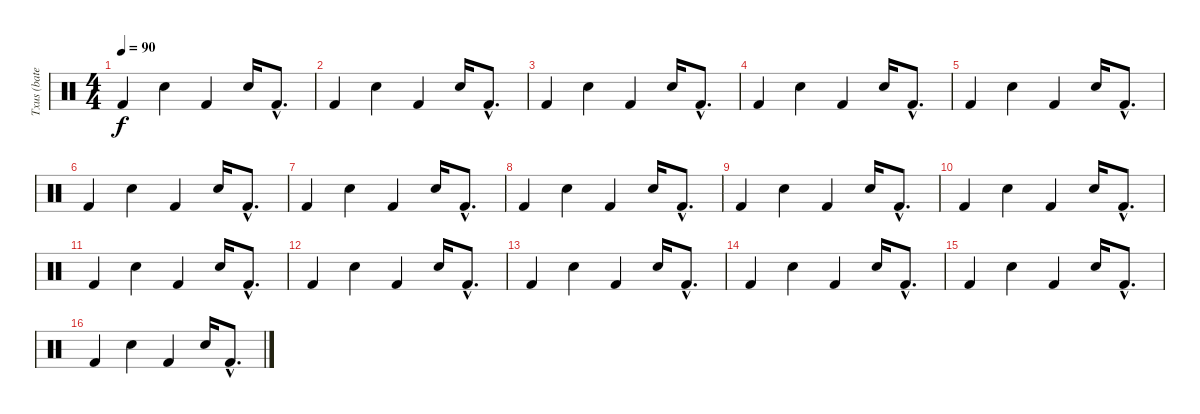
\track ("Txus (bateria)" "Txus (bate") {instrument percussion}
\staff {score}
\articulation defaults
\ts (4 4)
\tempo 90
\clef neutral
\ks c "Kick (hit) 2".4{dy f} "Snare (hit) 2".4 "Kick (hit) 2".4 "Snare (hit) 2".16 "Kick (hit) 2"{hac}.8{d}
|
"Kick (hit) 2".4 "Snare (hit) 2".4 "Kick (hit) 2".4 "Snare (hit) 2".16 "Kick (hit) 2"{hac}.8{d} |
"Kick (hit) 2".4 "Snare (hit) 2".4 "Kick (hit) 2".4 "Snare (hit) 2".16 "Kick (hit) 2"{hac}.8{d} |
"Kick (hit) 2".4 "Snare (hit) 2".4 "Kick (hit) 2".4 "Snare (hit) 2".16 "Kick (hit) 2"{hac}.8{d} |
"Kick (hit) 2".4 "Snare (hit) 2".4 "Kick (hit) 2".4 "Snare (hit) 2".16 "Kick (hit) 2"{hac}.8{d} |
"Kick (hit) 2".4 "Snare (hit) 2".4 "Kick (hit) 2".4 "Snare (hit) 2".16 "Kick (hit) 2"{hac}.8{d} |
"Kick (hit) 2".4 "Snare (hit) 2".4 "Kick (hit) 2".4 "Snare (hit) 2".16 "Kick (hit) 2"{hac}.8{d} |
"Kick (hit) 2".4 "Snare (hit) 2".4 "Kick (hit) 2".4 "Snare (hit) 2".16 "Kick (hit) 2"{hac}.8{d} |
"Kick (hit) 2".4 "Snare (hit) 2".4 "Kick (hit) 2".4 "Snare (hit) 2".16 "Kick (hit) 2"{hac}.8{d} |
"Kick (hit) 2".4 "Snare (hit) 2".4 "Kick (hit) 2".4 "Snare (hit) 2".16 "Kick (hit) 2"{hac}.8{d} |
"Kick (hit) 2".4 "Snare (hit) 2".4 "Kick (hit) 2".4 "Snare (hit) 2".16 "Kick (hit) 2"{hac}.8{d} |
"Kick (hit) 2".4 "Snare (hit) 2".4 "Kick (hit) 2".4 "Snare (hit) 2".16 "Kick (hit) 2"{hac}.8{d} |
"Kick (hit) 2".4 "Snare (hit) 2".4 "Kick (hit) 2".4 "Snare (hit) 2".16 "Kick (hit) 2"{hac}.8{d} |
"Kick (hit) 2".4 "Snare (hit) 2".4 "Kick (hit) 2".4 "Snare (hit) 2".16 "Kick (hit) 2"{hac}.8{d} |
"Kick (hit) 2".4 "Snare (hit) 2".4 "Kick (hit) 2".4 "Snare (hit) 2".16 "Kick (hit) 2"{hac}.8{d} |
"Kick (hit) 2".4 "Snare (hit) 2".4 "Kick (hit) 2".4 "Snare (hit) 2".16 "Kick (hit) 2"{hac}.8{d}
